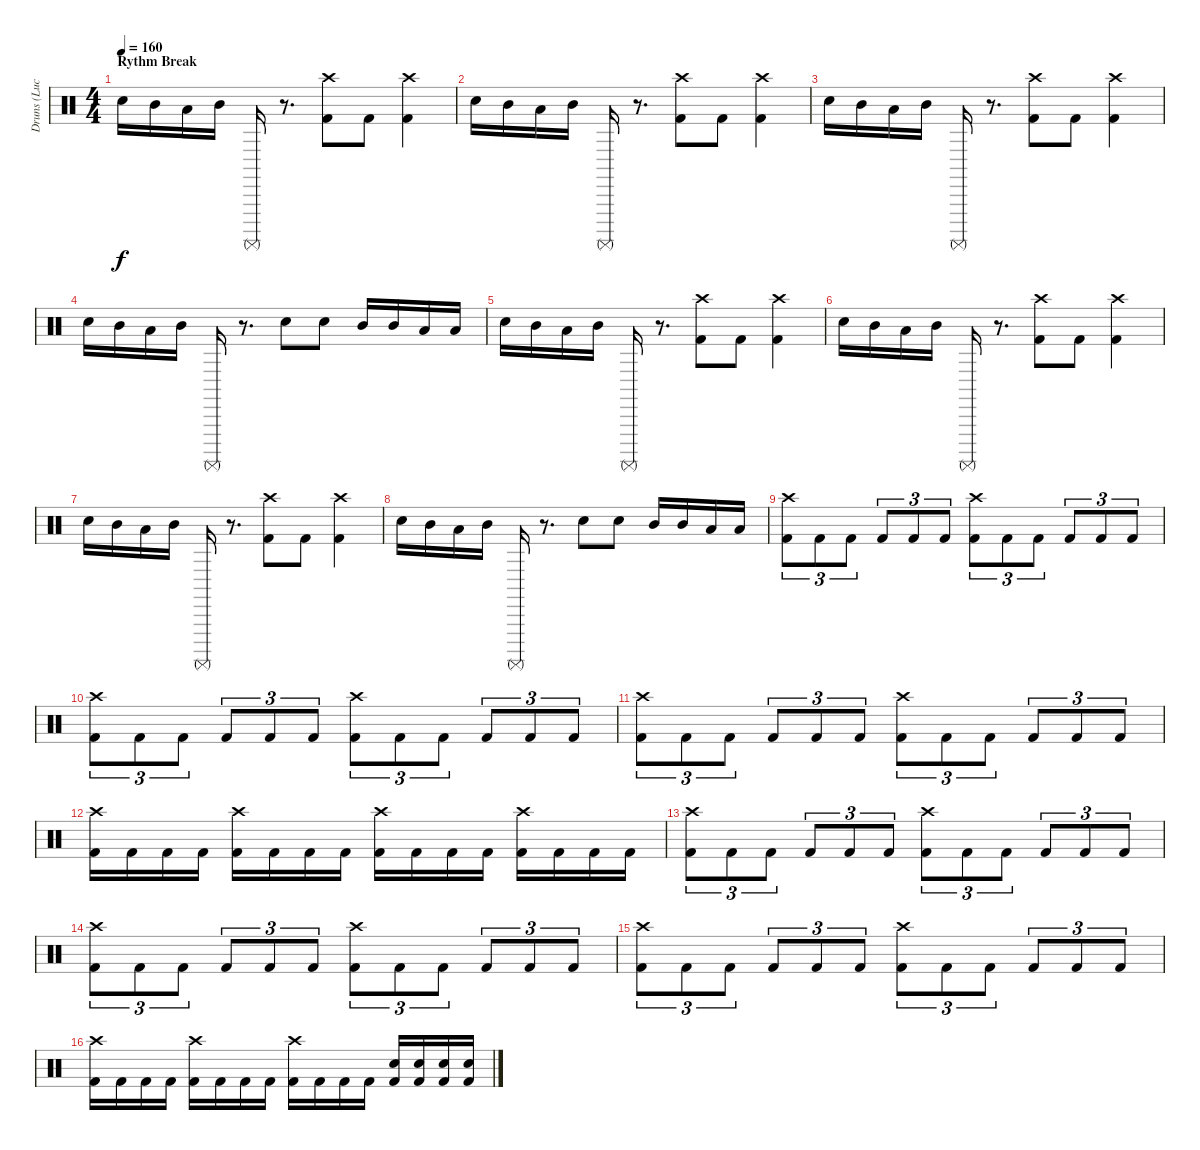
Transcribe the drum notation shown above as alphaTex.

\track ("Druns (Lucas Zigarti)" "Druns (Luc") {instrument percussion}
\staff {score}
\articulation defaults
\ts (4 4)
\section ("" "Rythm Break")
\tempo 160
\clef neutral
\ks c "Snare (hit) 2".16{dy f} "Mid Tom (hit)".16 "Low Tom (hit)".16 "Mid Tom (hit)".16 "Surdo (mute)".16
r.8{d} ("Crash high (hit)" "Kick (hit) 2").8 "Kick (hit) 2".8 ("Crash high (hit)" "Kick (hit) 2").4 |
"Snare (hit) 2".16 "Mid Tom (hit)".16 "Low Tom (hit)".16 "Mid Tom (hit)".16 "Surdo (mute)".16 r.8{d} ("Crash high (hit)" "Kick (hit) 2").8 "Kick (hit) 2".8 ("Crash high (hit)" "Kick (hit) 2").4 |
"Snare (hit) 2".16 "Mid Tom (hit)".16 "Low Tom (hit)".16 "Mid Tom (hit)".16 "Surdo (mute)".16 r.8{d} ("Crash high (hit)" "Kick (hit) 2").8 "Kick (hit) 2".8 ("Crash high (hit)" "Kick (hit) 2").4 |
"Snare (hit) 2".16 "Mid Tom (hit)".16 "Low Tom (hit)".16 "Mid Tom (hit)".16 "Surdo (mute)".16 r.8{d} "Snare (hit) 2".8 "Snare (hit) 2".8 "Mid Tom (hit)".16 "Mid Tom (hit)".16 "Low Tom (hit)".16 "Low Tom (hit)".16 |
"Snare (hit) 2".16 "Mid Tom (hit)".16 "Low Tom (hit)".16 "Mid Tom (hit)".16 "Surdo (mute)".16 r.8{d} ("Crash high (hit)" "Kick (hit) 2").8 "Kick (hit) 2".8 ("Crash high (hit)" "Kick (hit) 2").4 |
"Snare (hit) 2".16 "Mid Tom (hit)".16 "Low Tom (hit)".16 "Mid Tom (hit)".16 "Surdo (mute)".16 r.8{d} ("Crash high (hit)" "Kick (hit) 2").8 "Kick (hit) 2".8 ("Crash high (hit)" "Kick (hit) 2").4 |
"Snare (hit) 2".16 "Mid Tom (hit)".16 "Low Tom (hit)".16 "Mid Tom (hit)".16 "Surdo (mute)".16 r.8{d} ("Crash high (hit)" "Kick (hit) 2").8 "Kick (hit) 2".8 ("Crash high (hit)" "Kick (hit) 2").4 |
"Snare (hit) 2".16 "Mid Tom (hit)".16 "Low Tom (hit)".16 "Mid Tom (hit)".16 "Surdo (mute)".16 r.8{d} "Snare (hit) 2".8 "Snare (hit) 2".8 "Mid Tom (hit)".16 "Mid Tom (hit)".16 "Low Tom (hit)".16 "Low Tom (hit)".16 |
("Crash high (hit)" "Kick (hit) 2").8{tu (3 2)} "Kick (hit) 2".8{tu (3 2)} "Kick (hit) 2".8{tu (3 2)} "Kick (hit) 2".8{tu (3 2)} "Kick (hit) 2".8{tu (3 2)} "Kick (hit) 2".8{tu (3 2)} ("Crash high (hit)" "Kick (hit) 2").8{tu (3 2)} "Kick (hit) 2".8{tu (3 2)} "Kick (hit) 2".8{tu (3 2)} "Kick (hit) 2".8{tu (3 2)} "Kick (hit) 2".8{tu (3 2)} "Kick (hit) 2".8{tu (3 2)} |
("Crash high (hit)" "Kick (hit) 2").8{tu (3 2)} "Kick (hit) 2".8{tu (3 2)} "Kick (hit) 2".8{tu (3 2)} "Kick (hit) 2".8{tu (3 2)} "Kick (hit) 2".8{tu (3 2)} "Kick (hit) 2".8{tu (3 2)} ("Crash high (hit)" "Kick (hit) 2").8{tu (3 2)} "Kick (hit) 2".8{tu (3 2)} "Kick (hit) 2".8{tu (3 2)} "Kick (hit) 2".8{tu (3 2)} "Kick (hit) 2".8{tu (3 2)} "Kick (hit) 2".8{tu (3 2)} |
("Crash high (hit)" "Kick (hit) 2").8{tu (3 2)} "Kick (hit) 2".8{tu (3 2)} "Kick (hit) 2".8{tu (3 2)} "Kick (hit) 2".8{tu (3 2)} "Kick (hit) 2".8{tu (3 2)} "Kick (hit) 2".8{tu (3 2)} ("Crash high (hit)" "Kick (hit) 2").8{tu (3 2)} "Kick (hit) 2".8{tu (3 2)} "Kick (hit) 2".8{tu (3 2)} "Kick (hit) 2".8{tu (3 2)} "Kick (hit) 2".8{tu (3 2)} "Kick (hit) 2".8{tu (3 2)} |
("Crash high (hit)" "Kick (hit) 2").16 "Kick (hit) 2".16 "Kick (hit) 2".16 "Kick (hit) 2".16 ("Crash high (hit)" "Kick (hit) 2").16 "Kick (hit) 2".16 "Kick (hit) 2".16 "Kick (hit) 2".16 ("Crash high (hit)" "Kick (hit) 2").16 "Kick (hit) 2".16 "Kick (hit) 2".16 "Kick (hit) 2".16 ("Crash high (hit)" "Kick (hit) 2").16 "Kick (hit) 2".16 "Kick (hit) 2".16 "Kick (hit) 2".16 |
("Crash high (hit)" "Kick (hit) 2").8{tu (3 2)} "Kick (hit) 2".8{tu (3 2)} "Kick (hit) 2".8{tu (3 2)} "Kick (hit) 2".8{tu (3 2)} "Kick (hit) 2".8{tu (3 2)} "Kick (hit) 2".8{tu (3 2)} ("Crash high (hit)" "Kick (hit) 2").8{tu (3 2)} "Kick (hit) 2".8{tu (3 2)} "Kick (hit) 2".8{tu (3 2)} "Kick (hit) 2".8{tu (3 2)} "Kick (hit) 2".8{tu (3 2)} "Kick (hit) 2".8{tu (3 2)} |
("Crash high (hit)" "Kick (hit) 2").8{tu (3 2)} "Kick (hit) 2".8{tu (3 2)} "Kick (hit) 2".8{tu (3 2)} "Kick (hit) 2".8{tu (3 2)} "Kick (hit) 2".8{tu (3 2)} "Kick (hit) 2".8{tu (3 2)} ("Crash high (hit)" "Kick (hit) 2").8{tu (3 2)} "Kick (hit) 2".8{tu (3 2)} "Kick (hit) 2".8{tu (3 2)} "Kick (hit) 2".8{tu (3 2)} "Kick (hit) 2".8{tu (3 2)} "Kick (hit) 2".8{tu (3 2)} |
("Crash high (hit)" "Kick (hit) 2").8{tu (3 2)} "Kick (hit) 2".8{tu (3 2)} "Kick (hit) 2".8{tu (3 2)} "Kick (hit) 2".8{tu (3 2)} "Kick (hit) 2".8{tu (3 2)} "Kick (hit) 2".8{tu (3 2)} ("Crash high (hit)" "Kick (hit) 2").8{tu (3 2)} "Kick (hit) 2".8{tu (3 2)} "Kick (hit) 2".8{tu (3 2)} "Kick (hit) 2".8{tu (3 2)} "Kick (hit) 2".8{tu (3 2)} "Kick (hit) 2".8{tu (3 2)} |
("Crash high (hit)" "Kick (hit) 2").16 "Kick (hit) 2".16 "Kick (hit) 2".16 "Kick (hit) 2".16 ("Crash high (hit)" "Kick (hit) 2").16 "Kick (hit) 2".16 "Kick (hit) 2".16 "Kick (hit) 2".16 ("Crash high (hit)" "Kick (hit) 2").16 "Kick (hit) 2".16 "Kick (hit) 2".16 "Kick (hit) 2".16 ("Electric Snare (hit)" "Kick (hit) 2").16 ("Electric Snare (hit)" "Kick (hit) 2").16 ("Electric Snare (hit)" "Kick (hit) 2").16 ("Electric Snare (hit)" "Kick (hit) 2").16
